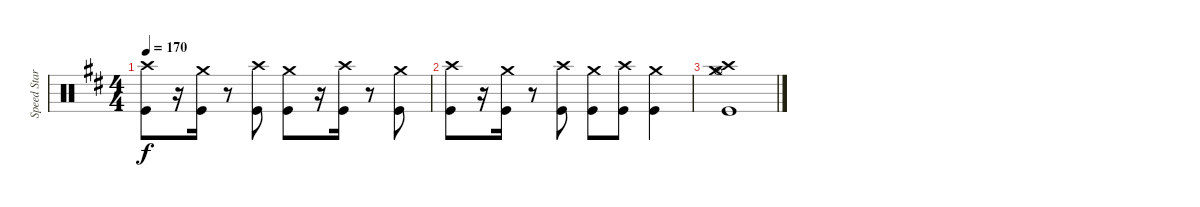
\track ("Speed Star" "Speed Star") {instrument percussion}
\staff {score}
\articulation defaults
\ts (4 4)
\tempo 170
\clef neutral
\ks d
("Kick (hit)" "Crash high (hit)").8{dy f} r.16 ("Kick (hit)" "Crash medium (hit)").16 r.8 ("Kick (hit)" "Crash high (hit)").8 ("Kick (hit)" "Crash medium (hit)").8 r.16 ("Kick (hit)" "Crash high (hit)").16 r.8 ("Kick (hit)" "Crash medium (hit)").8 |
("Kick (hit)" "Crash high (hit)").8 r.16 ("Kick (hit)" "Crash medium (hit)").16 r.8 ("Kick (hit)" "Crash high (hit)").8 ("Kick (hit)" "Crash medium (hit)").8 ("Kick (hit)" "Crash high (hit)").8 ("Kick (hit)" "Crash medium (hit)").4 |
("Kick (hit)" "Crash high (hit)" "Crash medium (hit)" "Hi-Hat (open)").1
